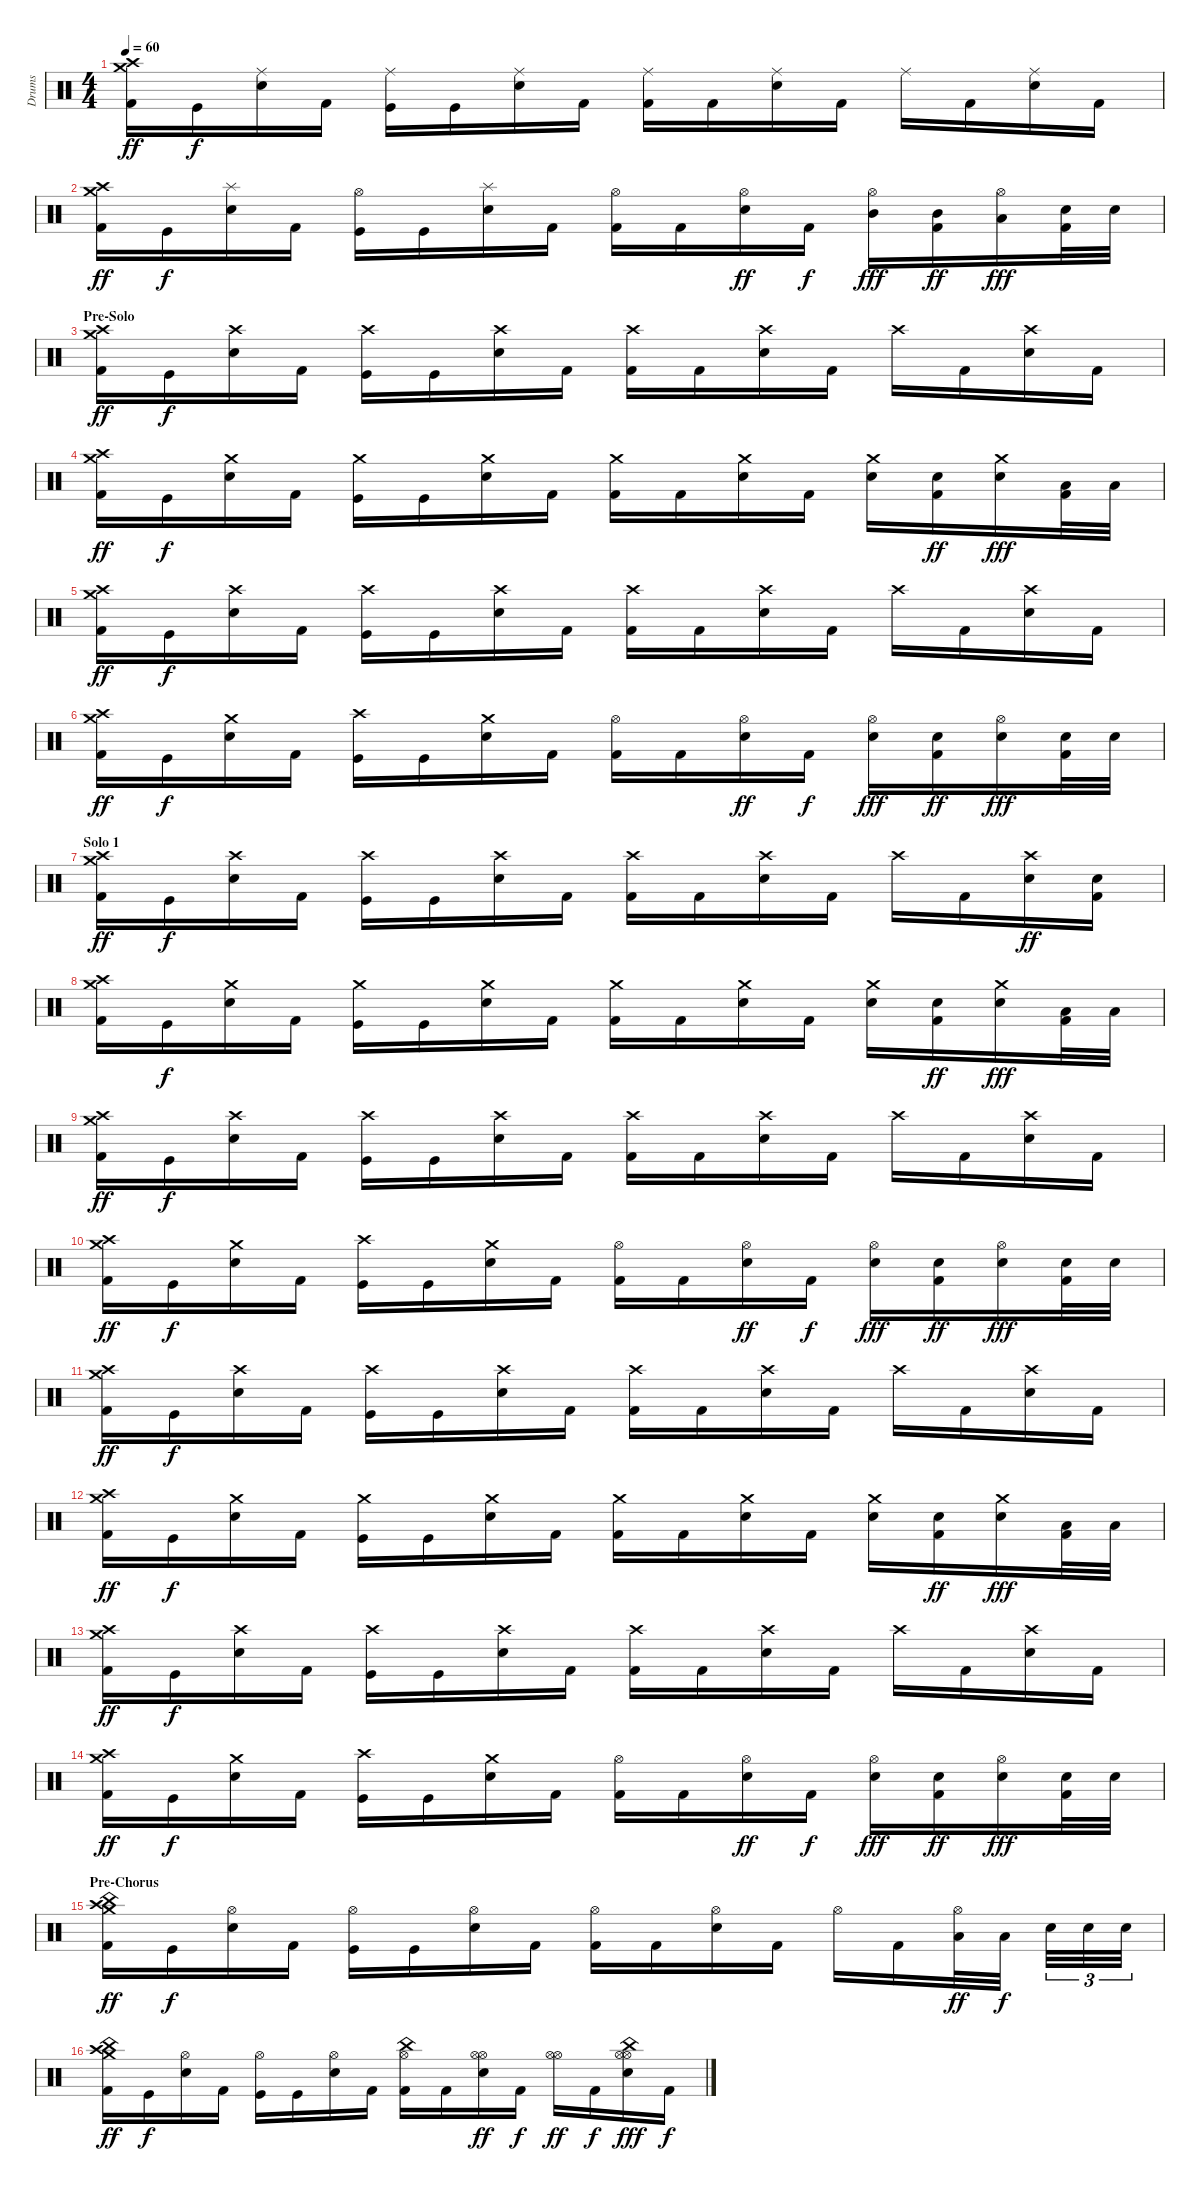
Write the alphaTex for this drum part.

\track ("Drums" "Drums") {instrument percussion}
\staff {score}
\articulation defaults
\ts (4 4)
\tempo 60
\clef neutral
\ks c
("Crash medium (hit)" "Crash high (hit)" "Kick (hit) 2").16{dy ff} "Kick (hit)".16{dy f} ("Ride (middle)" "Snare (hit) 2").16 "Kick (hit) 2".16 ("Ride (middle)" "Kick (hit)").16 "Kick (hit)".16 ("Ride (middle)" "Snare (hit) 2").16 "Kick (hit) 2".16 ("Ride (middle)" "Kick (hit) 2").16 "Kick (hit) 2".16 ("Ride (middle)" "Snare (hit) 2").16 "Kick (hit) 2".16 "Ride (middle)".16 "Kick (hit) 2".16 ("Ride (middle)" "Snare (hit) 2").16 "Kick (hit) 2".16 |
("Crash medium (hit)" "Crash high (hit)" "Kick (hit) 2").16{dy ff} "Kick (hit)".16{dy f} ("Splash (hit)" "Snare (hit) 2").16 "Kick (hit) 2".16 ("Hi-Hat (open)" "Kick (hit)").16 "Kick (hit)".16 ("Splash (hit)" "Snare (hit) 2").16 "Kick (hit) 2".16 ("Hi-Hat (open)" "Kick (hit) 2").16 "Kick (hit) 2".16 ("Hi-Hat (open)" "Snare (hit) 2").16{dy ff} "Kick (hit) 2".16{dy f} ("Hi-Hat (open)" "Mid Tom (hit)").16{dy fff} ("Mid Tom (hit)" "Kick (hit) 2").16{dy ff} ("Hi-Hat (open)" "Low Tom (hit)").16{dy fff} ("Snare (hit) 2" "Kick (hit) 2").32 "Snare (hit) 2".32 |
\section ("" "Pre-Solo")
("Crash medium (hit)" "Crash high (hit)" "Kick (hit) 2").16{dy ff} "Kick (hit)".16{dy f} ("Crash high (hit)" "Snare (hit) 2").16 "Kick (hit) 2".16 ("Crash high (hit)" "Kick (hit)").16 "Kick (hit)".16 ("Crash high (hit)" "Snare (hit) 2").16 "Kick (hit) 2".16 ("Crash high (hit)" "Kick (hit) 2").16 "Kick (hit) 2".16 ("Crash high (hit)" "Snare (hit) 2").16 "Kick (hit) 2".16 "Crash high (hit)".16 "Kick (hit) 2".16 ("Crash high (hit)" "Snare (hit) 2").16 "Kick (hit) 2".16 |
("Crash medium (hit)" "Crash high (hit)" "Kick (hit) 2").16{dy ff} "Kick (hit)".16{dy f} ("Crash medium (hit)" "Snare (hit) 2").16 "Kick (hit) 2".16 ("Crash medium (hit)" "Kick (hit)").16 "Kick (hit)".16 ("Crash medium (hit)" "Snare (hit) 2").16 "Kick (hit) 2".16 ("Crash medium (hit)" "Kick (hit) 2").16 "Kick (hit) 2".16 ("Crash medium (hit)" "Snare (hit) 2").16 "Kick (hit) 2".16 ("Crash medium (hit)" "Snare (hit) 2").16 ("Snare (hit) 2" "Kick (hit) 2").16{dy ff} ("Crash medium (hit)" "Snare (hit) 2").16{dy fff} ("Low Tom (hit)" "Kick (hit) 2").32 "Low Tom (hit)".32 |
("Crash medium (hit)" "Crash high (hit)" "Kick (hit) 2").16{dy ff} "Kick (hit)".16{dy f} ("Crash high (hit)" "Snare (hit) 2").16 "Kick (hit) 2".16 ("Crash high (hit)" "Kick (hit)").16 "Kick (hit)".16 ("Crash high (hit)" "Snare (hit) 2").16 "Kick (hit) 2".16 ("Crash high (hit)" "Kick (hit) 2").16 "Kick (hit) 2".16 ("Crash high (hit)" "Snare (hit) 2").16 "Kick (hit) 2".16 "Crash high (hit)".16 "Kick (hit) 2".16 ("Crash high (hit)" "Snare (hit) 2").16 "Kick (hit) 2".16 |
("Crash medium (hit)" "Crash high (hit)" "Kick (hit) 2").16{dy ff} "Kick (hit)".16{dy f} ("Crash medium (hit)" "Snare (hit) 2").16 "Kick (hit) 2".16 ("Crash high (hit)" "Kick (hit)").16 "Kick (hit)".16 ("Crash medium (hit)" "Snare (hit) 2").16 "Kick (hit) 2".16 ("Hi-Hat (open)" "Kick (hit) 2").16 "Kick (hit) 2".16 ("Hi-Hat (open)" "Snare (hit) 2").16{dy ff} "Kick (hit) 2".16{dy f} ("Hi-Hat (open)" "Snare (hit) 2").16{dy fff} ("Snare (hit) 2" "Kick (hit) 2").16{dy ff} ("Hi-Hat (open)" "Snare (hit) 2").16{dy fff} ("Snare (hit) 2" "Kick (hit) 2").32 "Snare (hit) 2".32 |
\section ("" "Solo 1 ")
("Crash medium (hit)" "Crash high (hit)" "Kick (hit) 2").16{dy ff} "Kick (hit)".16{dy f} ("Crash high (hit)" "Snare (hit) 2").16 "Kick (hit) 2".16 ("Crash high (hit)" "Kick (hit)").16 "Kick (hit)".16 ("Crash high (hit)" "Snare (hit) 2").16 "Kick (hit) 2".16 ("Crash high (hit)" "Kick (hit) 2").16 "Kick (hit) 2".16 ("Crash high (hit)" "Snare (hit) 2").16 "Kick (hit) 2".16 "Crash high (hit)".16 "Kick (hit) 2".16 ("Crash high (hit)" "Snare (hit) 2").16{dy ff} ("Snare (hit) 2" "Kick (hit) 2").16 |
("Crash medium (hit)" "Crash high (hit)" "Kick (hit) 2").16 "Kick (hit)".16{dy f} ("Crash medium (hit)" "Snare (hit) 2").16 "Kick (hit) 2".16 ("Crash medium (hit)" "Kick (hit)").16 "Kick (hit)".16 ("Crash medium (hit)" "Snare (hit) 2").16 "Kick (hit) 2".16 ("Crash medium (hit)" "Kick (hit) 2").16 "Kick (hit) 2".16 ("Crash medium (hit)" "Snare (hit) 2").16 "Kick (hit) 2".16 ("Crash medium (hit)" "Snare (hit) 2").16 ("Snare (hit) 2" "Kick (hit) 2").16{dy ff} ("Crash medium (hit)" "Snare (hit) 2").16{dy fff} ("Low Tom (hit)" "Kick (hit) 2").32 "Low Tom (hit)".32 |
("Crash medium (hit)" "Crash high (hit)" "Kick (hit) 2").16{dy ff} "Kick (hit)".16{dy f} ("Crash high (hit)" "Snare (hit) 2").16 "Kick (hit) 2".16 ("Crash high (hit)" "Kick (hit)").16 "Kick (hit)".16 ("Crash high (hit)" "Snare (hit) 2").16 "Kick (hit) 2".16 ("Crash high (hit)" "Kick (hit) 2").16 "Kick (hit) 2".16 ("Crash high (hit)" "Snare (hit) 2").16 "Kick (hit) 2".16 "Crash high (hit)".16 "Kick (hit) 2".16 ("Crash high (hit)" "Snare (hit) 2").16 "Kick (hit) 2".16 |
("Crash medium (hit)" "Crash high (hit)" "Kick (hit) 2").16{dy ff} "Kick (hit)".16{dy f} ("Crash medium (hit)" "Snare (hit) 2").16 "Kick (hit) 2".16 ("Crash high (hit)" "Kick (hit)").16 "Kick (hit)".16 ("Crash medium (hit)" "Snare (hit) 2").16 "Kick (hit) 2".16 ("Hi-Hat (open)" "Kick (hit) 2").16 "Kick (hit) 2".16 ("Hi-Hat (open)" "Snare (hit) 2").16{dy ff} "Kick (hit) 2".16{dy f} ("Hi-Hat (open)" "Snare (hit) 2").16{dy fff} ("Snare (hit) 2" "Kick (hit) 2").16{dy ff} ("Hi-Hat (open)" "Snare (hit) 2").16{dy fff} ("Snare (hit) 2" "Kick (hit) 2").32 "Snare (hit) 2".32 |
("Crash medium (hit)" "Crash high (hit)" "Kick (hit) 2").16{dy ff} "Kick (hit)".16{dy f} ("Crash high (hit)" "Snare (hit) 2").16 "Kick (hit) 2".16 ("Crash high (hit)" "Kick (hit)").16 "Kick (hit)".16 ("Crash high (hit)" "Snare (hit) 2").16 "Kick (hit) 2".16 ("Crash high (hit)" "Kick (hit) 2").16 "Kick (hit) 2".16 ("Crash high (hit)" "Snare (hit) 2").16 "Kick (hit) 2".16 "Crash high (hit)".16 "Kick (hit) 2".16 ("Crash high (hit)" "Snare (hit) 2").16 "Kick (hit) 2".16 |
("Crash medium (hit)" "Crash high (hit)" "Kick (hit) 2").16{dy ff} "Kick (hit)".16{dy f} ("Crash medium (hit)" "Snare (hit) 2").16 "Kick (hit) 2".16 ("Crash medium (hit)" "Kick (hit)").16 "Kick (hit)".16 ("Crash medium (hit)" "Snare (hit) 2").16 "Kick (hit) 2".16 ("Crash medium (hit)" "Kick (hit) 2").16 "Kick (hit) 2".16 ("Crash medium (hit)" "Snare (hit) 2").16 "Kick (hit) 2".16 ("Crash medium (hit)" "Snare (hit) 2").16 ("Snare (hit) 2" "Kick (hit) 2").16{dy ff} ("Crash medium (hit)" "Snare (hit) 2").16{dy fff} ("Low Tom (hit)" "Kick (hit) 2").32 "Low Tom (hit)".32 |
("Crash medium (hit)" "Crash high (hit)" "Kick (hit) 2").16{dy ff} "Kick (hit)".16{dy f} ("Crash high (hit)" "Snare (hit) 2").16 "Kick (hit) 2".16 ("Crash high (hit)" "Kick (hit)").16 "Kick (hit)".16 ("Crash high (hit)" "Snare (hit) 2").16 "Kick (hit) 2".16 ("Crash high (hit)" "Kick (hit) 2").16 "Kick (hit) 2".16 ("Crash high (hit)" "Snare (hit) 2").16 "Kick (hit) 2".16 "Crash high (hit)".16 "Kick (hit) 2".16 ("Crash high (hit)" "Snare (hit) 2").16 "Kick (hit) 2".16 |
("Crash medium (hit)" "Crash high (hit)" "Kick (hit) 2").16{dy ff} "Kick (hit)".16{dy f} ("Crash medium (hit)" "Snare (hit) 2").16 "Kick (hit) 2".16 ("Crash high (hit)" "Kick (hit)").16 "Kick (hit)".16 ("Crash medium (hit)" "Snare (hit) 2").16 "Kick (hit) 2".16 ("Hi-Hat (open)" "Kick (hit) 2").16 "Kick (hit) 2".16 ("Hi-Hat (open)" "Snare (hit) 2").16{dy ff} "Kick (hit) 2".16{dy f} ("Hi-Hat (open)" "Snare (hit) 2").16{dy fff} ("Snare (hit) 2" "Kick (hit) 2").16{dy ff} ("Hi-Hat (open)" "Snare (hit) 2").16{dy fff} ("Snare (hit) 2" "Kick (hit) 2").32 "Snare (hit) 2".32 |
\section ("" "Pre-Chorus")
("Crash medium (hit)" "Crash high (hit)" "China (hit)" "Kick (hit) 2").16{dy ff} "Kick (hit)".16{dy f} ("Hi-Hat (open)" "Snare (hit) 2").16 "Kick (hit) 2".16 ("Hi-Hat (open)" "Kick (hit)").16 "Kick (hit)".16 ("Hi-Hat (open)" "Snare (hit) 2").16 "Kick (hit) 2".16 ("Hi-Hat (open)" "Kick (hit) 2").16 "Kick (hit) 2".16 ("Hi-Hat (open)" "Snare (hit) 2").16 "Kick (hit) 2".16 "Hi-Hat (open)".16 "Kick (hit) 2".16 ("Hi-Hat (open)" "Low Tom (hit)").32{dy ff} "Low Tom (hit)".32{dy f} "Snare (hit) 2".32{tu (3 2)} "Snare (hit) 2".32{tu (3 2)} "Snare (hit) 2".32{tu (3 2)} |
("Crash medium (hit)" "Crash high (hit)" "China (hit)" "Kick (hit) 2").16{dy ff} "Kick (hit)".16{dy f} ("Hi-Hat (open)" "Snare (hit) 2").16 "Kick (hit) 2".16 ("Hi-Hat (open)" "Kick (hit)").16 "Kick (hit)".16 ("Hi-Hat (open)" "Snare (hit) 2").16 "Kick (hit) 2".16 ("Hi-Hat (open)" "China (hit)" "Kick (hit) 2").16 "Kick (hit) 2".16 ("Hi-Hat (open)" "Hi-Hat (open)" "Snare (hit) 2").16{dy ff} "Kick (hit) 2".16{dy f} ("Hi-Hat (open)" "Hi-Hat (open)").16{dy ff} "Kick (hit) 2".16{dy f} ("Hi-Hat (open)" "Hi-Hat (open)" "China (hit)" "Snare (hit) 2").16{dy fff} "Kick (hit) 2".16{dy f}
